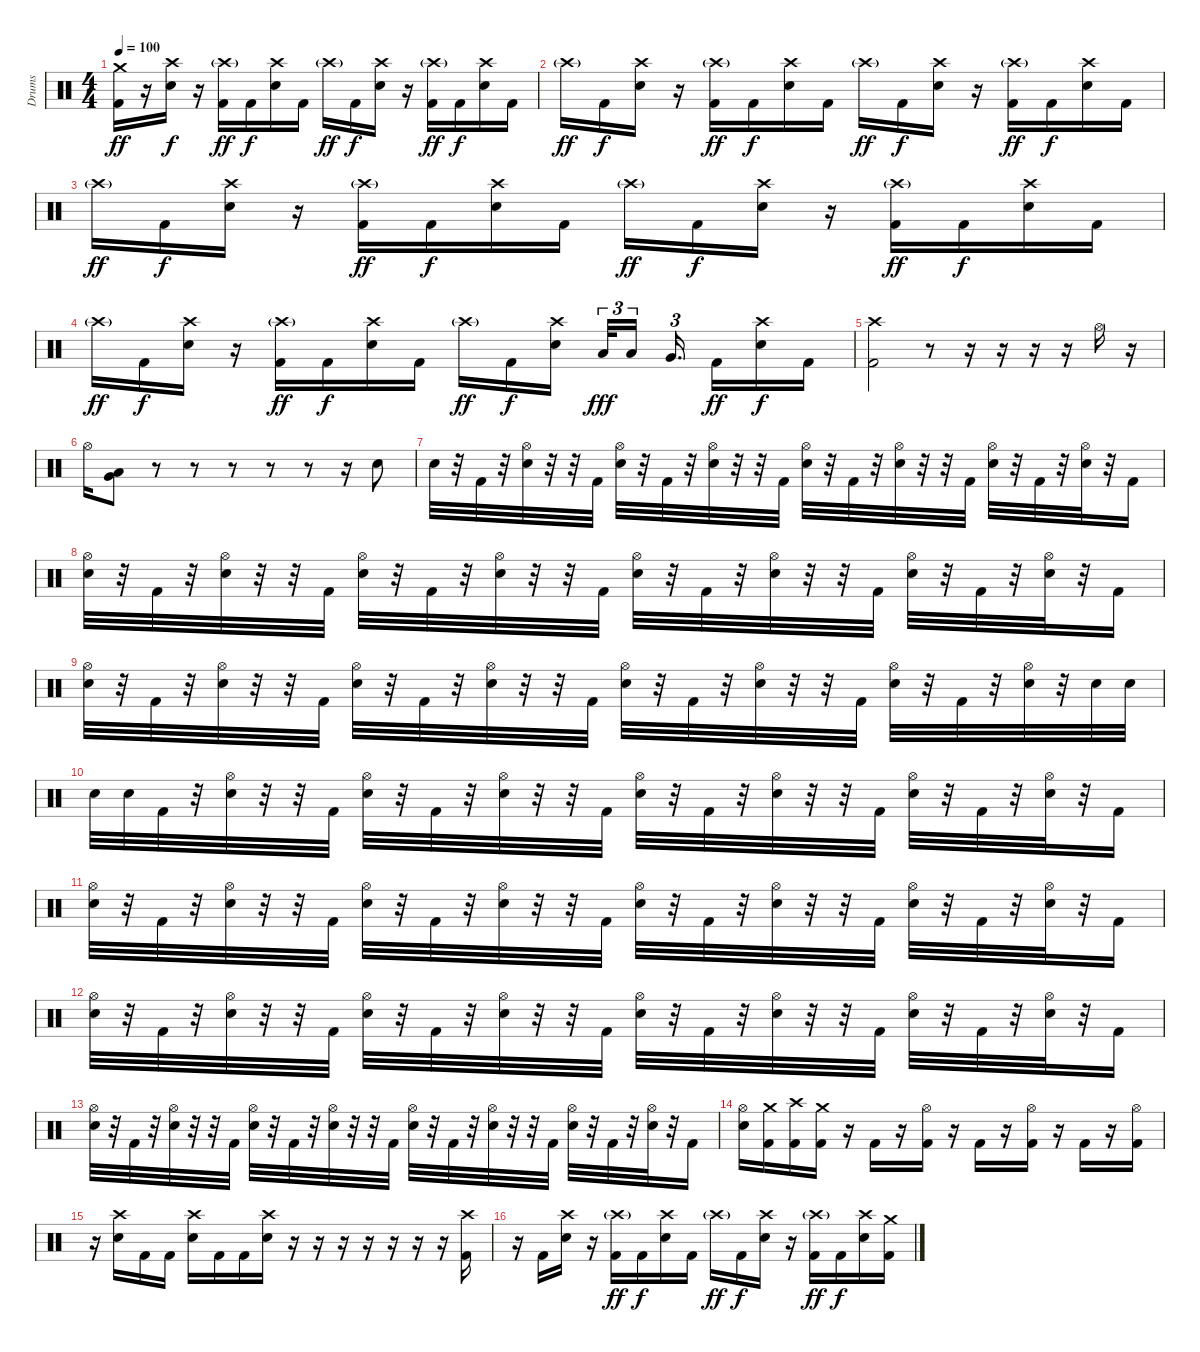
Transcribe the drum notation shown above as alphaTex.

\track ("Drums" "Drums") {instrument percussion}
\staff {score}
\articulation defaults
\ts (4 4)
\tempo 100
\clef neutral
\ks c
("Crash medium (hit)" "Kick (hit) 2").16{dy ff} r.16 ("Crash high (hit)" "Snare (hit) 2").16{dy f} r.16 ("Crash high (hit)"{g} "Kick (hit) 2").16{dy ff} "Kick (hit) 2".16{dy f} ("Crash high (hit)" "Snare (hit) 2").16 "Kick (hit) 2".16 "Crash high (hit)"{g}.16{dy ff} "Kick (hit) 2".16{dy f} ("Crash high (hit)" "Snare (hit) 2").16 r.16 ("Crash high (hit)"{g} "Kick (hit) 2").16{dy ff} "Kick (hit) 2".16{dy f} ("Crash high (hit)" "Snare (hit) 2").16 "Kick (hit) 2".16 |
"Crash high (hit)"{g}.16{dy ff} "Kick (hit) 2".16{dy f} ("Crash high (hit)" "Snare (hit) 2").16 r.16 ("Crash high (hit)"{g} "Kick (hit) 2").16{dy ff} "Kick (hit) 2".16{dy f} ("Crash high (hit)" "Snare (hit) 2").16 "Kick (hit) 2".16 "Crash high (hit)"{g}.16{dy ff} "Kick (hit) 2".16{dy f} ("Crash high (hit)" "Snare (hit) 2").16 r.16 ("Crash high (hit)"{g} "Kick (hit) 2").16{dy ff} "Kick (hit) 2".16{dy f} ("Crash high (hit)" "Snare (hit) 2").16 "Kick (hit) 2".16 |
"Crash high (hit)"{g}.16{dy ff} "Kick (hit) 2".16{dy f} ("Crash high (hit)" "Snare (hit) 2").16 r.16 ("Crash high (hit)"{g} "Kick (hit) 2").16{dy ff} "Kick (hit) 2".16{dy f} ("Crash high (hit)" "Snare (hit) 2").16 "Kick (hit) 2".16 "Crash high (hit)"{g}.16{dy ff} "Kick (hit) 2".16{dy f} ("Crash high (hit)" "Snare (hit) 2").16 r.16 ("Crash high (hit)"{g} "Kick (hit) 2").16{dy ff} "Kick (hit) 2".16{dy f} ("Crash high (hit)" "Snare (hit) 2").16 "Kick (hit) 2".16 |
"Crash high (hit)"{g}.16{dy ff} "Kick (hit) 2".16{dy f} ("Crash high (hit)" "Snare (hit) 2").16 r.16 ("Crash high (hit)"{g} "Kick (hit) 2").16{dy ff} "Kick (hit) 2".16{dy f} ("Crash high (hit)" "Snare (hit) 2").16 "Kick (hit) 2".16 "Crash high (hit)"{g}.16{dy ff} "Kick (hit) 2".16{dy f} ("Crash high (hit)" "Snare (hit) 2").16{beam splitsecondary} "Low Tom (hit)".32{tu (3 2) dy fff} "Low Tom (hit)".16{tu (3 2)} "Very Low Tom (hit)".16{d tu (3 2) beam splitsecondary} "Kick (hit) 2".16{dy ff} ("Crash high (hit)" "Snare (hit) 2").16{dy f} "Kick (hit) 2".16 |
("Crash high (hit)" "Kick (hit) 2").2 r.8 r.16 r.16 r.16 r.16 "Hi-Hat (open)".16 r.16 |
"Hi-Hat (open)".16 ("Low Tom (hit)" "Very Low Tom (hit)").8 r.8 r.8 r.8 r.8 r.8 r.16 "Snare (hit) 2".8 |
"Snare (hit) 2".32 r.32 "Kick (hit) 2".32 r.32 ("Hi-Hat (open)" "Snare (hit) 2").32 r.32 r.32 "Kick (hit) 2".32 ("Hi-Hat (open)" "Snare (hit) 2").32 r.32 "Kick (hit) 2".32 r.32 ("Hi-Hat (open)" "Snare (hit) 2").32 r.32 r.32 "Kick (hit) 2".32 ("Hi-Hat (open)" "Snare (hit) 2").32 r.32 "Kick (hit) 2".32 r.32 ("Hi-Hat (open)" "Snare (hit) 2").32 r.32 r.32 "Kick (hit) 2".32 ("Hi-Hat (open)" "Snare (hit) 2").32 r.32 "Kick (hit) 2".32 r.32 ("Hi-Hat (open)" "Snare (hit) 2").32 r.32 "Kick (hit) 2".16 |
("Hi-Hat (open)" "Snare (hit) 2").32 r.32 "Kick (hit) 2".32 r.32 ("Hi-Hat (open)" "Snare (hit) 2").32 r.32 r.32 "Kick (hit) 2".32 ("Hi-Hat (open)" "Snare (hit) 2").32 r.32 "Kick (hit) 2".32 r.32 ("Hi-Hat (open)" "Snare (hit) 2").32 r.32 r.32 "Kick (hit) 2".32 ("Hi-Hat (open)" "Snare (hit) 2").32 r.32 "Kick (hit) 2".32 r.32 ("Hi-Hat (open)" "Snare (hit) 2").32 r.32 r.32 "Kick (hit) 2".32 ("Hi-Hat (open)" "Snare (hit) 2").32 r.32 "Kick (hit) 2".32 r.32 ("Hi-Hat (open)" "Snare (hit) 2").32 r.32 "Kick (hit) 2".16 |
("Hi-Hat (open)" "Snare (hit) 2").32 r.32 "Kick (hit) 2".32 r.32 ("Hi-Hat (open)" "Snare (hit) 2").32 r.32 r.32 "Kick (hit) 2".32 ("Hi-Hat (open)" "Snare (hit) 2").32 r.32 "Kick (hit) 2".32 r.32 ("Hi-Hat (open)" "Snare (hit) 2").32 r.32 r.32 "Kick (hit) 2".32 ("Hi-Hat (open)" "Snare (hit) 2").32 r.32 "Kick (hit) 2".32 r.32 ("Hi-Hat (open)" "Snare (hit) 2").32 r.32 r.32 "Kick (hit) 2".32 ("Hi-Hat (open)" "Snare (hit) 2").32 r.32 "Kick (hit) 2".32 r.32 ("Hi-Hat (open)" "Snare (hit) 2").32 r.32 "Snare (hit) 2".32 "Snare (hit) 2".32 |
"Snare (hit) 2".32 "Snare (hit) 2".32 "Kick (hit) 2".32 r.32 ("Hi-Hat (open)" "Snare (hit) 2").32 r.32 r.32 "Kick (hit) 2".32 ("Hi-Hat (open)" "Snare (hit) 2").32 r.32 "Kick (hit) 2".32 r.32 ("Hi-Hat (open)" "Snare (hit) 2").32 r.32 r.32 "Kick (hit) 2".32 ("Hi-Hat (open)" "Snare (hit) 2").32 r.32 "Kick (hit) 2".32 r.32 ("Hi-Hat (open)" "Snare (hit) 2").32 r.32 r.32 "Kick (hit) 2".32 ("Hi-Hat (open)" "Snare (hit) 2").32 r.32 "Kick (hit) 2".32 r.32 ("Hi-Hat (open)" "Snare (hit) 2").32 r.32 "Kick (hit) 2".16 |
("Hi-Hat (open)" "Snare (hit) 2").32 r.32 "Kick (hit) 2".32 r.32 ("Hi-Hat (open)" "Snare (hit) 2").32 r.32 r.32 "Kick (hit) 2".32 ("Hi-Hat (open)" "Snare (hit) 2").32 r.32 "Kick (hit) 2".32 r.32 ("Hi-Hat (open)" "Snare (hit) 2").32 r.32 r.32 "Kick (hit) 2".32 ("Hi-Hat (open)" "Snare (hit) 2").32 r.32 "Kick (hit) 2".32 r.32 ("Hi-Hat (open)" "Snare (hit) 2").32 r.32 r.32 "Kick (hit) 2".32 ("Hi-Hat (open)" "Snare (hit) 2").32 r.32 "Kick (hit) 2".32 r.32 ("Hi-Hat (open)" "Snare (hit) 2").32 r.32 "Kick (hit) 2".16 |
("Hi-Hat (open)" "Snare (hit) 2").32 r.32 "Kick (hit) 2".32 r.32 ("Hi-Hat (open)" "Snare (hit) 2").32 r.32 r.32 "Kick (hit) 2".32 ("Hi-Hat (open)" "Snare (hit) 2").32 r.32 "Kick (hit) 2".32 r.32 ("Hi-Hat (open)" "Snare (hit) 2").32 r.32 r.32 "Kick (hit) 2".32 ("Hi-Hat (open)" "Snare (hit) 2").32 r.32 "Kick (hit) 2".32 r.32 ("Hi-Hat (open)" "Snare (hit) 2").32 r.32 r.32 "Kick (hit) 2".32 ("Hi-Hat (open)" "Snare (hit) 2").32 r.32 "Kick (hit) 2".32 r.32 ("Hi-Hat (open)" "Snare (hit) 2").32 r.32 "Kick (hit) 2".16 |
("Hi-Hat (open)" "Snare (hit) 2").32 r.32 "Kick (hit) 2".32 r.32 ("Hi-Hat (open)" "Snare (hit) 2").32 r.32 r.32 "Kick (hit) 2".32 ("Hi-Hat (open)" "Snare (hit) 2").32 r.32 "Kick (hit) 2".32 r.32 ("Hi-Hat (open)" "Snare (hit) 2").32 r.32 r.32 "Kick (hit) 2".32 ("Hi-Hat (open)" "Snare (hit) 2").32 r.32 "Kick (hit) 2".32 r.32 ("Hi-Hat (open)" "Snare (hit) 2").32 r.32 r.32 "Kick (hit) 2".32 ("Hi-Hat (open)" "Snare (hit) 2").32 r.32 "Kick (hit) 2".32 r.32 ("Hi-Hat (open)" "Snare (hit) 2").32 r.32 "Kick (hit) 2".16 |
("Hi-Hat (open)" "Snare (hit) 2").16 ("Crash medium (hit)" "Kick (hit) 2").16 ("Crash high (hit)" "Kick (hit) 2").16 ("Crash medium (hit)" "Kick (hit) 2").16 r.16 "Kick (hit) 2".16 r.16 ("Hi-Hat (open)" "Kick (hit) 2").16 r.16 "Kick (hit) 2".16 r.16 ("Hi-Hat (open)" "Kick (hit) 2").16 r.16 "Kick (hit) 2".16 r.16 ("Hi-Hat (open)" "Kick (hit) 2").16 |
r.16 ("Crash high (hit)" "Snare (hit) 2").16 "Kick (hit) 2".16 "Kick (hit) 2".16 ("Crash high (hit)" "Snare (hit) 2").16 "Kick (hit) 2".16 "Kick (hit) 2".16 ("Crash high (hit)" "Snare (hit) 2").16 r.16 r.16 r.16 r.16 r.16 r.16 r.16 ("Crash high (hit)" "Kick (hit) 2").16 |
r.16 "Kick (hit) 2".16 ("Crash high (hit)" "Snare (hit) 2").16 r.16 ("Crash high (hit)"{g} "Kick (hit) 2").16{dy ff} "Kick (hit) 2".16{dy f} ("Crash high (hit)" "Snare (hit) 2").16 "Kick (hit) 2".16 "Crash high (hit)"{g}.16{dy ff} "Kick (hit) 2".16{dy f} ("Crash high (hit)" "Snare (hit) 2").16 r.16 ("Crash high (hit)"{g} "Kick (hit) 2").16{dy ff} "Kick (hit) 2".16{dy f} ("Crash high (hit)" "Snare (hit) 2").16 ("Crash medium (hit)" "Kick (hit) 2").16
